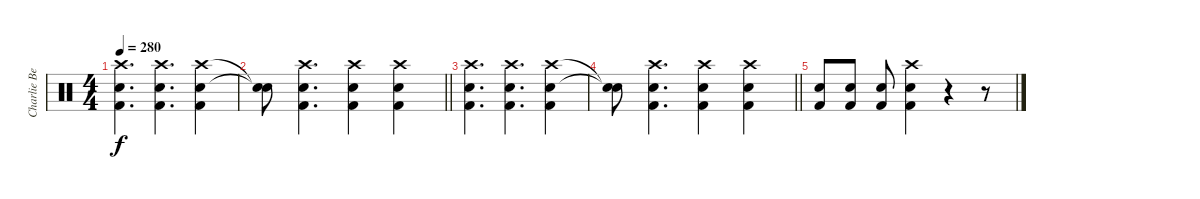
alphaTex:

\track ("Charlie Benante" "Charlie Be") {instrument percussion}
\staff {score}
\articulation defaults
\ts (4 4)
\tempo 280
\clef neutral
\ks c
("Crash high (hit)" "Snare (hit) 2" "Kick (hit) 2").4{d dy f} ("Crash high (hit)" "Snare (hit) 2" "Kick (hit) 2").4{d} ("Crash high (hit)" "Snare (hit) 2" "Kick (hit) 2").4 |
\barLineRight lightlight
("Snare (hit)"{t} "Snare (hit)"{t}).8 ("Crash high (hit)" "Snare (hit) 2" "Kick (hit) 2").4{d} ("Crash high (hit)" "Snare (hit) 2" "Kick (hit) 2").4 ("Crash high (hit)" "Snare (hit) 2" "Kick (hit) 2").4 |
("Crash high (hit)" "Snare (hit) 2" "Kick (hit) 2").4{d} ("Crash high (hit)" "Snare (hit) 2" "Kick (hit) 2").4{d} ("Crash high (hit)" "Snare (hit) 2" "Kick (hit) 2").4 |
\barLineRight lightlight
("Snare (hit)"{t} "Snare (hit)"{t}).8 ("Crash high (hit)" "Snare (hit) 2" "Kick (hit) 2").4{d} ("Crash high (hit)" "Snare (hit) 2" "Kick (hit) 2").4 ("Crash high (hit)" "Snare (hit) 2" "Kick (hit) 2").4 |
("Snare (hit) 2" "Kick (hit) 2").8 ("Snare (hit) 2" "Kick (hit) 2").8 ("Snare (hit) 2" "Kick (hit) 2").8 ("Crash high (hit)" "Snare (hit) 2" "Kick (hit) 2").4 r.4 r.8
